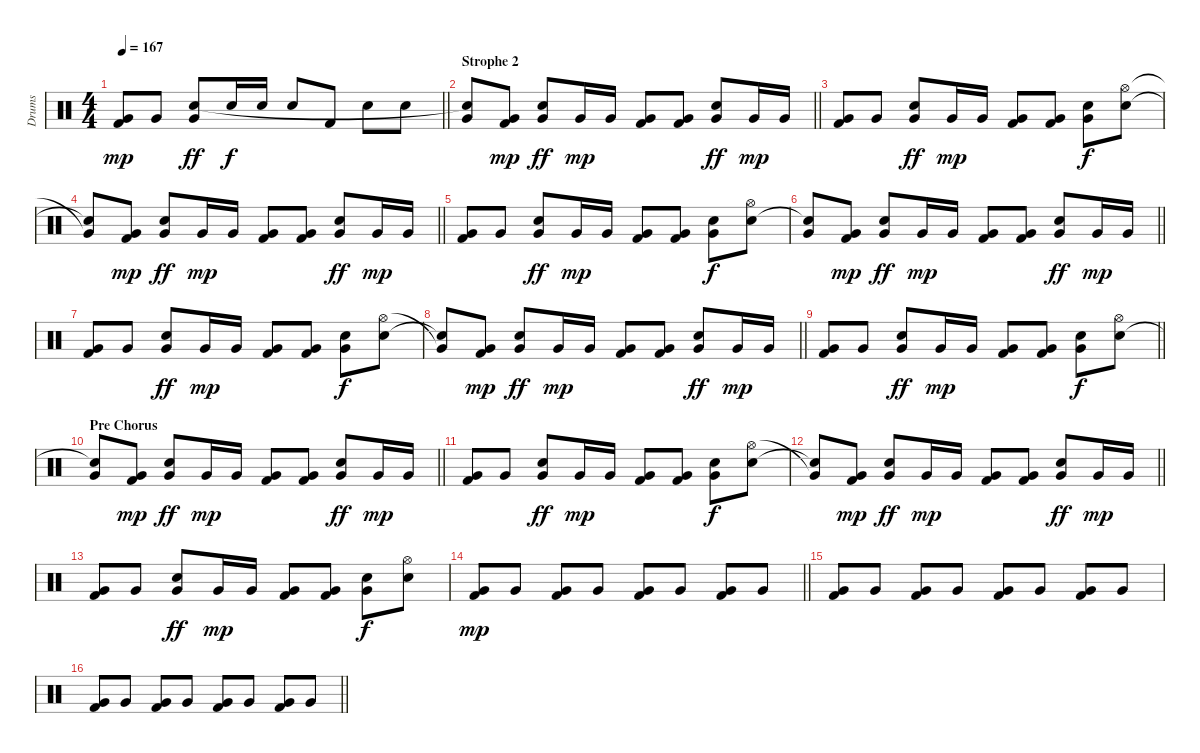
\track ("Drums" "Drums") {instrument percussion}
\staff {score}
\articulation defaults
\ts (4 4)
\tempo 167
\clef neutral
\barLineRight lightlight
\ks c
("Very Low Tom (hit)" "Kick (hit) 2").8{dy mp} "Very Low Tom (hit)".8 ("Very Low Tom (hit)" "Snare (hit) 2").8{dy ff} "Snare (hit) 2".16{dy f} "Snare (hit) 2".16 "Snare (hit) 2".8 "Kick (hit) 2".8 "Snare (hit) 2".8 "Snare (hit) 2".8 |
\section ("" "Strophe 2")
\barLineRight lightlight
("Very Low Tom (hit)" "Snare (hit)"{t}).8 ("Very Low Tom (hit)" "Kick (hit) 2").8{dy mp} ("Very Low Tom (hit)" "Snare (hit) 2").8{dy ff} "Very Low Tom (hit)".16{dy mp} "Very Low Tom (hit)".16 ("Very Low Tom (hit)" "Kick (hit) 2").8 ("Very Low Tom (hit)" "Kick (hit) 2").8 ("Very Low Tom (hit)" "Snare (hit) 2").8{dy ff} "Very Low Tom (hit)".16{dy mp} "Very Low Tom (hit)".16 |
("Very Low Tom (hit)" "Kick (hit) 2").8 "Very Low Tom (hit)".8 ("Very Low Tom (hit)" "Snare (hit) 2").8{dy ff} "Very Low Tom (hit)".16{dy mp} "Very Low Tom (hit)".16 ("Very Low Tom (hit)" "Kick (hit) 2").8 ("Very Low Tom (hit)" "Kick (hit) 2").8 ("Very Low Tom (hit)" "Snare (hit) 2").8{dy f} ("Hi-Hat (open)" "Snare (hit) 2").8 |
\barLineRight lightlight
("Very Low Tom (hit)"{t} "Snare (hit)"{t}).8 ("Very Low Tom (hit)" "Kick (hit) 2").8{dy mp} ("Very Low Tom (hit)" "Snare (hit) 2").8{dy ff} "Very Low Tom (hit)".16{dy mp} "Very Low Tom (hit)".16 ("Very Low Tom (hit)" "Kick (hit) 2").8 ("Very Low Tom (hit)" "Kick (hit) 2").8 ("Very Low Tom (hit)" "Snare (hit) 2").8{dy ff} "Very Low Tom (hit)".16{dy mp} "Very Low Tom (hit)".16 |
("Very Low Tom (hit)" "Kick (hit) 2").8 "Very Low Tom (hit)".8 ("Very Low Tom (hit)" "Snare (hit) 2").8{dy ff} "Very Low Tom (hit)".16{dy mp} "Very Low Tom (hit)".16 ("Very Low Tom (hit)" "Kick (hit) 2").8 ("Very Low Tom (hit)" "Kick (hit) 2").8 ("Very Low Tom (hit)" "Snare (hit) 2").8{dy f} ("Hi-Hat (open)" "Snare (hit) 2").8 |
\barLineRight lightlight
("Very Low Tom (hit)" "Snare (hit)"{t}).8 ("Very Low Tom (hit)" "Kick (hit) 2").8{dy mp} ("Very Low Tom (hit)" "Snare (hit) 2").8{dy ff} "Very Low Tom (hit)".16{dy mp} "Very Low Tom (hit)".16 ("Very Low Tom (hit)" "Kick (hit) 2").8 ("Very Low Tom (hit)" "Kick (hit) 2").8 ("Very Low Tom (hit)" "Snare (hit) 2").8{dy ff} "Very Low Tom (hit)".16{dy mp} "Very Low Tom (hit)".16 |
("Very Low Tom (hit)" "Kick (hit) 2").8 "Very Low Tom (hit)".8 ("Very Low Tom (hit)" "Snare (hit) 2").8{dy ff} "Very Low Tom (hit)".16{dy mp} "Very Low Tom (hit)".16 ("Very Low Tom (hit)" "Kick (hit) 2").8 ("Very Low Tom (hit)" "Kick (hit) 2").8 ("Very Low Tom (hit)" "Snare (hit) 2").8{dy f} ("Hi-Hat (open)" "Snare (hit) 2").8 |
\barLineRight lightlight
("Very Low Tom (hit)"{t} "Snare (hit)"{t}).8 ("Very Low Tom (hit)" "Kick (hit) 2").8{dy mp} ("Very Low Tom (hit)" "Snare (hit) 2").8{dy ff} "Very Low Tom (hit)".16{dy mp} "Very Low Tom (hit)".16 ("Very Low Tom (hit)" "Kick (hit) 2").8 ("Very Low Tom (hit)" "Kick (hit) 2").8 ("Very Low Tom (hit)" "Snare (hit) 2").8{dy ff} "Very Low Tom (hit)".16{dy mp} "Very Low Tom (hit)".16 |
\barLineRight lightlight
("Very Low Tom (hit)" "Kick (hit) 2").8 "Very Low Tom (hit)".8 ("Very Low Tom (hit)" "Snare (hit) 2").8{dy ff} "Very Low Tom (hit)".16{dy mp} "Very Low Tom (hit)".16 ("Very Low Tom (hit)" "Kick (hit) 2").8 ("Very Low Tom (hit)" "Kick (hit) 2").8 ("Very Low Tom (hit)" "Snare (hit) 2").8{dy f} ("Hi-Hat (open)" "Snare (hit) 2").8 |
\section ("" "Pre Chorus")
\barLineRight lightlight
("Very Low Tom (hit)" "Snare (hit)"{t}).8 ("Very Low Tom (hit)" "Kick (hit) 2").8{dy mp} ("Very Low Tom (hit)" "Snare (hit) 2").8{dy ff} "Very Low Tom (hit)".16{dy mp} "Very Low Tom (hit)".16 ("Very Low Tom (hit)" "Kick (hit) 2").8 ("Very Low Tom (hit)" "Kick (hit) 2").8 ("Very Low Tom (hit)" "Snare (hit) 2").8{dy ff} "Very Low Tom (hit)".16{dy mp} "Very Low Tom (hit)".16 |
("Very Low Tom (hit)" "Kick (hit) 2").8 "Very Low Tom (hit)".8 ("Very Low Tom (hit)" "Snare (hit) 2").8{dy ff} "Very Low Tom (hit)".16{dy mp} "Very Low Tom (hit)".16 ("Very Low Tom (hit)" "Kick (hit) 2").8 ("Very Low Tom (hit)" "Kick (hit) 2").8 ("Very Low Tom (hit)" "Snare (hit) 2").8{dy f} ("Hi-Hat (open)" "Snare (hit) 2").8 |
\barLineRight lightlight
("Very Low Tom (hit)"{t} "Snare (hit)"{t}).8 ("Very Low Tom (hit)" "Kick (hit) 2").8{dy mp} ("Very Low Tom (hit)" "Snare (hit) 2").8{dy ff} "Very Low Tom (hit)".16{dy mp} "Very Low Tom (hit)".16 ("Very Low Tom (hit)" "Kick (hit) 2").8 ("Very Low Tom (hit)" "Kick (hit) 2").8 ("Very Low Tom (hit)" "Snare (hit) 2").8{dy ff} "Very Low Tom (hit)".16{dy mp} "Very Low Tom (hit)".16 |
("Very Low Tom (hit)" "Kick (hit) 2").8 "Very Low Tom (hit)".8 ("Very Low Tom (hit)" "Snare (hit) 2").8{dy ff} "Very Low Tom (hit)".16{dy mp} "Very Low Tom (hit)".16 ("Very Low Tom (hit)" "Kick (hit) 2").8 ("Very Low Tom (hit)" "Kick (hit) 2").8 ("Very Low Tom (hit)" "Snare (hit) 2").8{dy f} ("Hi-Hat (open)" "Snare (hit) 2").8 |
\barLineRight lightlight
("Very Low Tom (hit)" "Kick (hit) 2").8{dy mp} "Very Low Tom (hit)".8 ("Very Low Tom (hit)" "Kick (hit) 2").8 "Very Low Tom (hit)".8 ("Very Low Tom (hit)" "Kick (hit) 2").8 "Very Low Tom (hit)".8 ("Very Low Tom (hit)" "Kick (hit) 2").8 "Very Low Tom (hit)".8 |
("Very Low Tom (hit)" "Kick (hit) 2").8 "Very Low Tom (hit)".8 ("Very Low Tom (hit)" "Kick (hit) 2").8 "Very Low Tom (hit)".8 ("Very Low Tom (hit)" "Kick (hit) 2").8 "Very Low Tom (hit)".8 ("Very Low Tom (hit)" "Kick (hit) 2").8 "Very Low Tom (hit)".8 |
\barLineRight lightlight
("Very Low Tom (hit)" "Kick (hit) 2").8 "Very Low Tom (hit)".8 ("Very Low Tom (hit)" "Kick (hit) 2").8 "Very Low Tom (hit)".8 ("Very Low Tom (hit)" "Kick (hit) 2").8 "Very Low Tom (hit)".8 ("Very Low Tom (hit)" "Kick (hit) 2").8 "Very Low Tom (hit)".8
